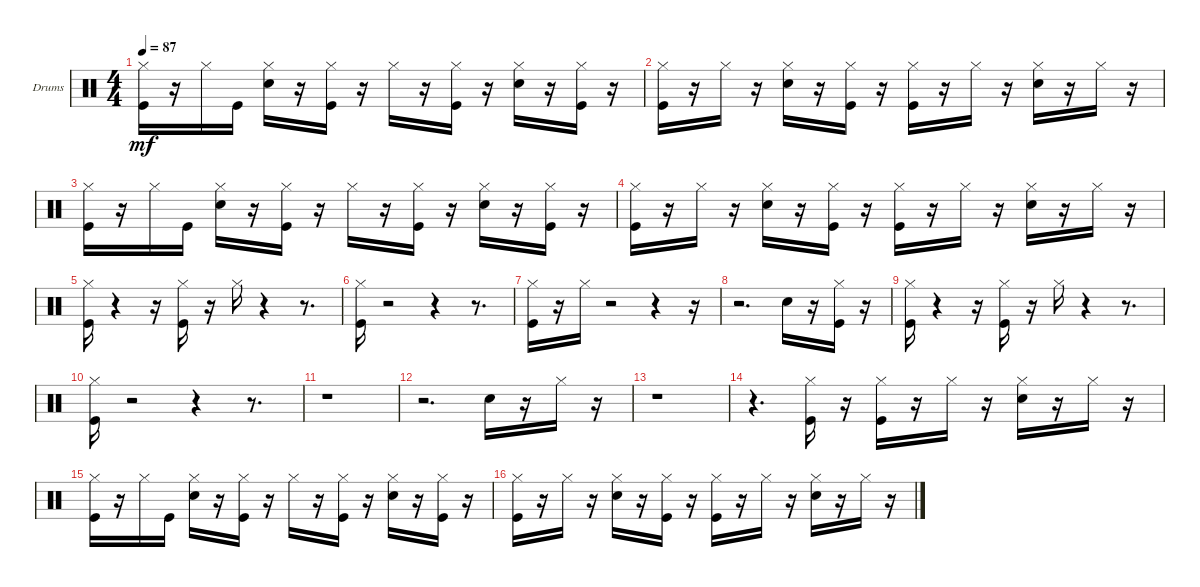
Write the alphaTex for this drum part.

\bracketExtendMode groupsimilarinstruments
\firstSystemTrackNameOrientation horizontal
\otherSystemsTrackNameOrientation horizontal
\track ("MIDI out" "Drums") {instrument percussion}
\staff {score}
\articulation defaults
\ts (4 4)
\tempo 87
\clef neutral
\ks c
("Kick (hit)" "Hi-Hat (closed)").16{dy mf} r.16 "Hi-Hat (closed)".16 "Kick (hit)".16 ("Hi-Hat (closed)" "Snare (hit) 2").16 r.16 ("Kick (hit)" "Hi-Hat (closed)").16 r.16 "Hi-Hat (closed)".16 r.16 ("Kick (hit)" "Hi-Hat (closed)").16 r.16 ("Snare (hit) 2" "Hi-Hat (closed)").16 r.16 ("Hi-Hat (closed)" "Kick (hit)").16 r.16 |
("Hi-Hat (closed)" "Kick (hit)").16 r.16 "Hi-Hat (closed)".16 r.16 ("Hi-Hat (closed)" "Snare (hit) 2").16 r.16 ("Kick (hit)" "Hi-Hat (closed)").16 r.16 ("Hi-Hat (closed)" "Kick (hit)").16 r.16 "Hi-Hat (closed)".16 r.16 ("Hi-Hat (closed)" "Snare (hit) 2").16 r.16 "Hi-Hat (closed)".16 r.16 |
("Kick (hit)" "Hi-Hat (closed)").16 r.16 "Hi-Hat (closed)".16 "Kick (hit)".16 ("Snare (hit) 2" "Hi-Hat (closed)").16 r.16 ("Kick (hit)" "Hi-Hat (closed)").16 r.16 "Hi-Hat (closed)".16 r.16 ("Kick (hit)" "Hi-Hat (closed)").16 r.16 ("Snare (hit) 2" "Hi-Hat (closed)").16 r.16 ("Hi-Hat (closed)" "Kick (hit)").16 r.16 |
("Kick (hit)" "Hi-Hat (closed)").16 r.16 "Hi-Hat (closed)".16 r.16 ("Snare (hit) 2" "Hi-Hat (closed)").16 r.16 ("Hi-Hat (closed)" "Kick (hit)").16 r.16 ("Kick (hit)" "Hi-Hat (closed)").16 r.16 "Hi-Hat (closed)".16 r.16 ("Snare (hit) 2" "Hi-Hat (closed)").16 r.16 "Hi-Hat (closed)".16 r.16 |
("Kick (hit)" "Hi-Hat (closed)").16 r.4 r.16 ("Kick (hit)" "Hi-Hat (closed)").16 r.16 "Hi-Hat (closed)".16 r.4 r.8{d} |
("Kick (hit)" "Hi-Hat (closed)").16 r.2 r.4 r.8{d} |
("Kick (hit)" "Hi-Hat (closed)").16 r.16 "Hi-Hat (closed)".16 r.2 r.4 r.16 |
r.2{d} "Snare (hit) 2".16 r.16 ("Hi-Hat (closed)" "Kick (hit)").16 r.16 |
("Kick (hit)" "Hi-Hat (closed)").16 r.4 r.16 ("Kick (hit)" "Hi-Hat (closed)").16 r.16 "Hi-Hat (closed)".16 r.4 r.8{d} |
("Kick (hit)" "Hi-Hat (closed)").16 r.2 r.4 r.8{d} |
r.1 |
r.2{d} "Snare (hit) 2".16 r.16 "Hi-Hat (closed)".16 r.16 |
r.1 |
r.4{d} ("Kick (hit)" "Hi-Hat (closed)").16 r.16 ("Kick (hit)" "Hi-Hat (closed)").16 r.16 "Hi-Hat (closed)".16 r.16 ("Snare (hit) 2" "Hi-Hat (closed)").16 r.16 "Hi-Hat (closed)".16 r.16 |
("Kick (hit)" "Hi-Hat (closed)").16 r.16 "Hi-Hat (closed)".16 "Kick (hit)".16 ("Snare (hit) 2" "Hi-Hat (closed)").16 r.16 ("Kick (hit)" "Hi-Hat (closed)").16 r.16 "Hi-Hat (closed)".16 r.16 ("Kick (hit)" "Hi-Hat (closed)").16 r.16 ("Snare (hit) 2" "Hi-Hat (closed)").16 r.16 ("Hi-Hat (closed)" "Kick (hit)").16 r.16 |
("Hi-Hat (closed)" "Kick (hit)").16 r.16 "Hi-Hat (closed)".16 r.16 ("Snare (hit) 2" "Hi-Hat (closed)").16 r.16 ("Hi-Hat (closed)" "Kick (hit)").16 r.16 ("Hi-Hat (closed)" "Kick (hit)").16 r.16 "Hi-Hat (closed)".16 r.16 ("Hi-Hat (closed)" "Snare (hit) 2").16 r.16 "Hi-Hat (closed)".16 r.16
